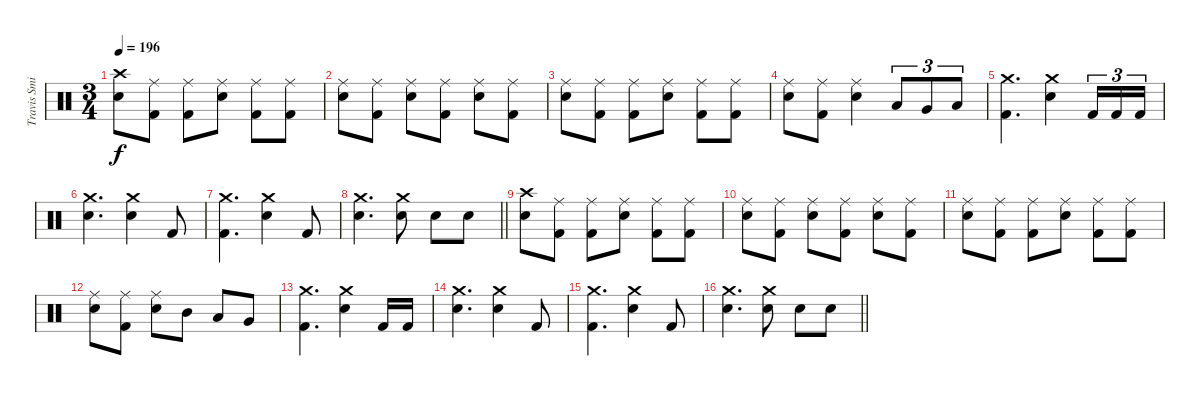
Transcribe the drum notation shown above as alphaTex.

\track ("Travis Smith" "Travis Smi") {instrument percussion}
\staff {score}
\articulation defaults
\ts (3 4)
\tempo 196
\clef neutral
\ks c
("Crash high (hit)" "Electric Snare (hit)").8{dy f} ("Ride (middle)" "Kick (hit) 2").8 ("Ride (middle)" "Kick (hit) 2").8 ("Ride (middle)" "Electric Snare (hit)").8 ("Ride (middle)" "Kick (hit) 2").8 ("Ride (middle)" "Kick (hit) 2").8 |
("Ride (middle)" "Electric Snare (hit)").8 ("Ride (middle)" "Kick (hit) 2").8 ("Ride (middle)" "Electric Snare (hit)").8 ("Ride (middle)" "Kick (hit) 2").8 ("Ride (middle)" "Electric Snare (hit)").8 ("Ride (middle)" "Kick (hit) 2").8 |
("Ride (middle)" "Electric Snare (hit)").8 ("Ride (middle)" "Kick (hit) 2").8 ("Ride (middle)" "Kick (hit) 2").8 ("Ride (middle)" "Electric Snare (hit)").8 ("Ride (middle)" "Kick (hit) 2").8 ("Ride (middle)" "Kick (hit) 2").8 |
("Ride (middle)" "Electric Snare (hit)").8 ("Ride (middle)" "Kick (hit) 2").8 ("Ride (middle)" "Electric Snare (hit)").4 "Low Tom (hit)".8{tu (3 2)} "Very Low Tom (hit)".8{tu (3 2)} "Low Floor Tom (hit)".8{tu (3 2)} |
("Crash medium (hit)" "Kick (hit) 2").4{d} ("Crash medium (hit)" "Electric Snare (hit)").4 "Kick (hit) 2".16{tu (3 2)} "Kick (hit) 2".16{tu (3 2)} "Kick (hit) 2".16{tu (3 2)} |
("Crash medium (hit)" "Electric Snare (hit)").4{d} ("Crash medium (hit)" "Electric Snare (hit)").4 "Kick (hit) 2".8 |
("Crash medium (hit)" "Kick (hit) 2").4{d} ("Crash medium (hit)" "Electric Snare (hit)").4 "Kick (hit) 2".8 |
\barLineRight lightlight
("Crash medium (hit)" "Electric Snare (hit)").4{d} ("Crash medium (hit)" "Electric Snare (hit)").8 "Electric Snare (hit)".8 "Electric Snare (hit)".8 |
("Crash high (hit)" "Electric Snare (hit)").8 ("Ride (middle)" "Kick (hit) 2").8 ("Ride (middle)" "Kick (hit) 2").8 ("Ride (middle)" "Electric Snare (hit)").8 ("Ride (middle)" "Kick (hit) 2").8 ("Ride (middle)" "Kick (hit) 2").8 |
("Ride (middle)" "Electric Snare (hit)").8 ("Ride (middle)" "Kick (hit) 2").8 ("Ride (middle)" "Electric Snare (hit)").8 ("Ride (middle)" "Kick (hit) 2").8 ("Ride (middle)" "Electric Snare (hit)").8 ("Ride (middle)" "Kick (hit) 2").8 |
("Ride (middle)" "Electric Snare (hit)").8 ("Ride (middle)" "Kick (hit) 2").8 ("Ride (middle)" "Kick (hit) 2").8 ("Ride (middle)" "Electric Snare (hit)").8 ("Ride (middle)" "Kick (hit) 2").8 ("Ride (middle)" "Kick (hit) 2").8 |
("Ride (middle)" "Electric Snare (hit)").8 ("Ride (middle)" "Kick (hit) 2").8 ("Ride (middle)" "Electric Snare (hit)").8 "Mid Tom (hit)".8 "Low Tom (hit)".8 "Very Low Tom (hit)".8 |
("Crash medium (hit)" "Kick (hit) 2").4{d} ("Crash medium (hit)" "Electric Snare (hit)").4 "Kick (hit) 2".16 "Kick (hit) 2".16 |
("Crash medium (hit)" "Electric Snare (hit)").4{d} ("Crash medium (hit)" "Electric Snare (hit)").4 "Kick (hit) 2".8 |
("Crash medium (hit)" "Kick (hit) 2").4{d} ("Crash medium (hit)" "Electric Snare (hit)").4 "Kick (hit) 2".8 |
\barLineRight lightlight
("Crash medium (hit)" "Electric Snare (hit)").4{d} ("Crash medium (hit)" "Electric Snare (hit)").8 "Electric Snare (hit)".8 "Electric Snare (hit)".8
